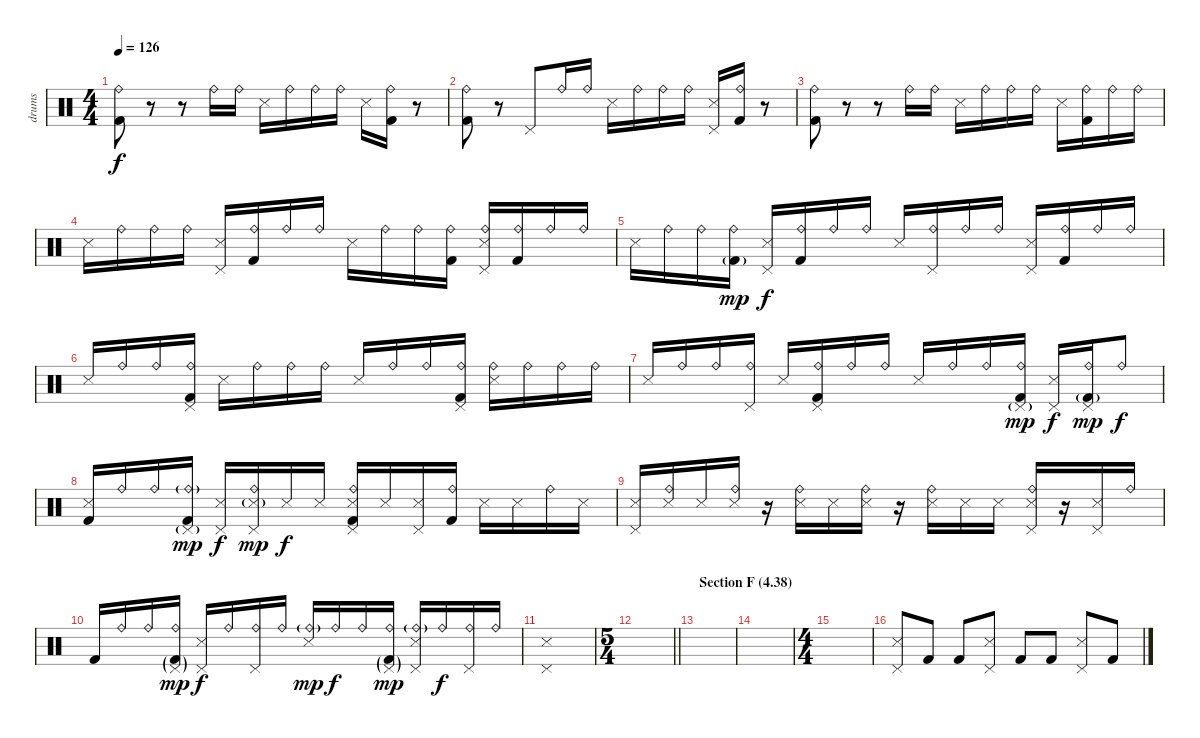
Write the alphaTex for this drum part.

\track ("drums" "drums") {instrument percussion}
\staff {score}
\articulation defaults
\ts (4 4)
\tempo 126
\clef neutral
\ks c
("Ride (bell)" "Kick (hit) 2").8{dy f} r.8 r.8 "Ride (bell)".16 "Ride (bell)".16 "Snare (side stick) 3".16 "Ride (bell)".16 "Ride (bell)".16 "Ride (bell)".16 "Snare (side stick) 3".16 ("Ride (bell)" "Kick (hit) 2").16 r.8 |
("Ride (bell)" "Kick (hit) 2").8 r.8 "Pedal Hi-Hat (hit)".8 "Ride (bell)".16 "Ride (bell)".16 "Snare (side stick) 3".16 "Ride (bell)".16 "Ride (bell)".16 "Ride (bell)".16 ("Pedal Hi-Hat (hit)" "Snare (side stick) 3").16 ("Ride (bell)" "Kick (hit) 2").16 r.8 |
("Ride (bell)" "Kick (hit) 2").8 r.8 r.8 "Ride (bell)".16 "Ride (bell)".16 "Snare (side stick) 3".16 "Ride (bell)".16 "Ride (bell)".16 "Ride (bell)".16 "Snare (side stick) 3".16 ("Ride (bell)" "Kick (hit) 2").16 "Ride (bell)".16 "Ride (bell)".16 |
"Snare (side stick) 3".16 "Ride (bell)".16 "Ride (bell)".16 "Ride (bell)".16 ("Pedal Hi-Hat (hit)" "Snare (side stick) 3").16 ("Ride (bell)" "Kick (hit) 2").16 "Ride (bell)".16 "Ride (bell)".16 "Snare (side stick) 3".16 "Ride (bell)".16 "Ride (bell)".16 ("Ride (bell)" "Kick (hit) 2").16 ("Ride (bell)" "Pedal Hi-Hat (hit)" "Snare (side stick) 3").16 ("Ride (bell)" "Kick (hit) 2").16 "Ride (bell)".16 "Ride (bell)".16 |
"Snare (side stick) 3".16 "Ride (bell)".16 "Ride (bell)".16 ("Ride (bell)" "Kick (hit) 2"{g}).16{dy mp} ("Pedal Hi-Hat (hit)" "Snare (side stick) 3").16{dy f} ("Ride (bell)" "Kick (hit) 2").16 "Ride (bell)".16 "Ride (bell)".16 "Snare (side stick) 3".16 ("Ride (bell)" "Pedal Hi-Hat (hit)").16 "Ride (bell)".16 "Ride (bell)".16 ("Pedal Hi-Hat (hit)" "Snare (side stick) 3").16 ("Ride (bell)" "Kick (hit) 2").16 "Ride (bell)".16 "Ride (bell)".16 |
"Snare (side stick) 3".16 "Ride (bell)".16 "Ride (bell)".16 ("Ride (bell)" "Pedal Hi-Hat (hit)" "Kick (hit) 2").16 "Snare (side stick) 3".16 "Ride (bell)".16 "Ride (bell)".16 "Ride (bell)".16 "Snare (side stick) 3".16 "Ride (bell)".16 "Ride (bell)".16 ("Ride (bell)" "Pedal Hi-Hat (hit)" "Kick (hit) 2").16 ("Ride (bell)" "Snare (side stick) 3").16 "Ride (bell)".16 "Ride (bell)".16 "Ride (bell)".16 |
"Snare (side stick) 3".16 "Ride (bell)".16 "Ride (bell)".16 ("Ride (bell)" "Pedal Hi-Hat (hit)").16 "Snare (side stick) 3".16 ("Ride (bell)" "Pedal Hi-Hat (hit)" "Kick (hit) 2").16 "Ride (bell)".16 "Ride (bell)".16 "Snare (side stick) 3".16 "Ride (bell)".16 "Ride (bell)".16 ("Ride (bell)" "Pedal Hi-Hat (hit)"{g} "Kick (hit) 2").16{dy mp} ("Pedal Hi-Hat (hit)" "Snare (side stick) 3").16{dy f} ("Ride (bell)" "Pedal Hi-Hat (hit)" "Kick (hit) 2"{g}).16{dy mp} "Ride (bell)".8{dy f} |
("Snare (side stick) 3" "Kick (hit) 2").16 "Ride (bell)".16 "Ride (bell)".16 ("Ride (bell)"{g} "Pedal Hi-Hat (hit)"{g} "Kick (hit) 2").16{dy mp} ("Pedal Hi-Hat (hit)" "Snare (side stick) 3").16{dy f} ("Ride (bell)" "Pedal Hi-Hat (hit)" "Snare (side stick) 3"{g}).16{dy mp} "Snare (side stick) 3".16{dy f} "Snare (side stick) 3".16 ("Ride (bell)" "Pedal Hi-Hat (hit)" "Snare (side stick) 3" "Kick (hit) 2").16 "Snare (side stick) 3".16 ("Pedal Hi-Hat (hit)" "Snare (side stick) 3").16 ("Ride (bell)" "Kick (hit) 2").16 "Snare (side stick) 3".16 "Snare (side stick) 3".16 "Ride (bell)".16 "Snare (side stick) 3".16 |
("Pedal Hi-Hat (hit)" "Snare (side stick) 3").16 ("Ride (bell)" "Snare (side stick) 3").16 "Snare (side stick) 3".16 ("Ride (bell)" "Snare (side stick) 3").16 r.16 ("Ride (bell)" "Snare (side stick) 3").16 "Snare (side stick) 3".16 ("Ride (bell)" "Snare (side stick) 3").16 r.16 ("Ride (bell)" "Snare (side stick) 3").16 "Snare (side stick) 3".16 "Snare (side stick) 3".16 ("Ride (bell)" "Pedal Hi-Hat (hit)" "Snare (side stick) 3").16 r.16 ("Pedal Hi-Hat (hit)" "Snare (side stick) 3").16 "Ride (bell)".16 |
"Kick (hit) 2".16 "Ride (bell)".16 "Ride (bell)".16 ("Ride (bell)" "Pedal Hi-Hat (hit)"{g} "Kick (hit) 2"{g}).16{dy mp} ("Pedal Hi-Hat (hit)" "Snare (side stick) 3").16{dy f} "Ride (bell)".16 ("Ride (bell)" "Pedal Hi-Hat (hit)").16 "Ride (bell)".16 ("Ride (bell)"{g} "Snare (side stick) 3").16{dy mp} "Ride (bell)".16{dy f} "Ride (bell)".16 ("Ride (bell)" "Pedal Hi-Hat (hit)"{g} "Kick (hit) 2"{g}).16{dy mp} ("Ride (bell)"{g} "Pedal Hi-Hat (hit)" "Snare (side stick) 3").16 "Ride (bell)".16{dy f} ("Ride (bell)" "Pedal Hi-Hat (hit)").16 "Ride (bell)".16 |
("Pedal Hi-Hat (hit)" "Snare (side stick) 3").1 |
\ts (5 4)
\barLineRight lightlight
|
\section ("" "Section F (4.38)")
|
|
\ts (4 4)
|
("Pedal Hi-Hat (hit)" "Snare (side stick) 3").8 "Kick (hit) 2".8 "Kick (hit) 2".8 ("Pedal Hi-Hat (hit)" "Snare (side stick) 3").8 "Kick (hit) 2".8 "Kick (hit) 2".8 ("Pedal Hi-Hat (hit)" "Snare (side stick) 3").8 "Kick (hit) 2".8
